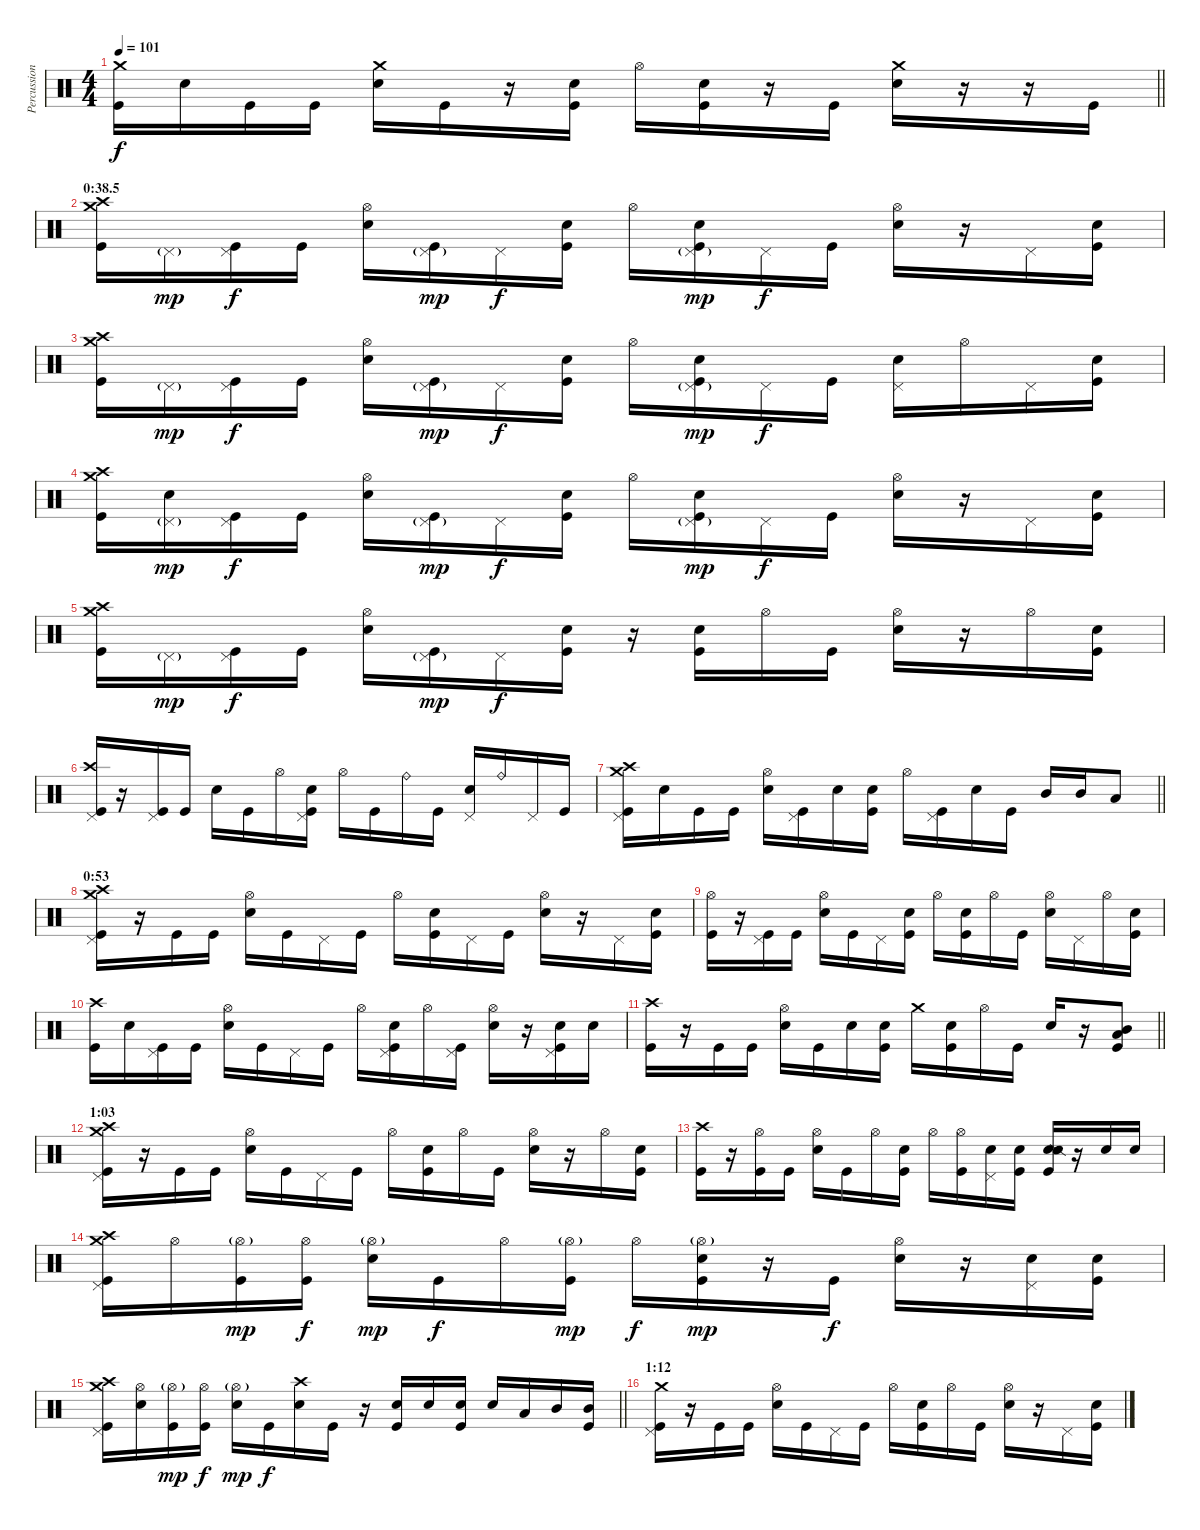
\track ("Percussion" "Percussion") {instrument percussion}
\staff {score}
\articulation defaults
\ts (4 4)
\tempo 101
\clef neutral
\barLineRight lightlight
\ks c
("Crash medium (hit)" "Kick (hit)").16{dy f} "Snare (hit) 2".16 "Kick (hit)".16 "Kick (hit)".16 ("Crash medium (hit)" "Snare (hit) 2").16 "Kick (hit)".16 r.16 ("Snare (hit) 2" "Kick (hit)").16 "Hi-Hat (open)".16 ("Snare (hit) 2" "Kick (hit)").16 r.16 "Kick (hit)".16 ("Crash medium (hit)" "Snare (hit) 2").16 r.16 r.16 "Kick (hit)".16 |
\section ("" "0:38.5")
("Crash high (hit)" "Crash medium (hit)" "Kick (hit)").16 "Pedal Hi-Hat (hit)"{g}.16{dy mp} ("Kick (hit)" "Pedal Hi-Hat (hit)").16{dy f} "Kick (hit)".16 ("Hi-Hat (open)" "Snare (hit) 2").16 ("Kick (hit)" "Pedal Hi-Hat (hit)"{g}).16{dy mp} "Pedal Hi-Hat (hit)".16{dy f} ("Snare (hit) 2" "Kick (hit)").16 "Hi-Hat (open)".16 ("Snare (hit) 2" "Kick (hit)" "Pedal Hi-Hat (hit)"{g}).16{dy mp} "Pedal Hi-Hat (hit)".16{dy f} "Kick (hit)".16 ("Hi-Hat (open)" "Snare (hit) 2").16 r.16 "Pedal Hi-Hat (hit)".16 ("Snare (hit) 2" "Kick (hit)").16 |
("Crash high (hit)" "Crash medium (hit)" "Kick (hit)").16 "Pedal Hi-Hat (hit)"{g}.16{dy mp} ("Kick (hit)" "Pedal Hi-Hat (hit)").16{dy f} "Kick (hit)".16 ("Hi-Hat (open)" "Snare (hit) 2").16 ("Kick (hit)" "Pedal Hi-Hat (hit)"{g}).16{dy mp} "Pedal Hi-Hat (hit)".16{dy f} ("Snare (hit) 2" "Kick (hit)").16 "Hi-Hat (open)".16 ("Snare (hit) 2" "Kick (hit)" "Pedal Hi-Hat (hit)"{g}).16{dy mp} "Pedal Hi-Hat (hit)".16{dy f} "Kick (hit)".16 ("Snare (hit) 2" "Pedal Hi-Hat (hit)").16 "Hi-Hat (open)".16 "Pedal Hi-Hat (hit)".16 ("Snare (hit) 2" "Kick (hit)").16 |
("Crash high (hit)" "Crash medium (hit)" "Kick (hit)").16 ("Snare (hit) 2" "Pedal Hi-Hat (hit)"{g}).16{dy mp} ("Kick (hit)" "Pedal Hi-Hat (hit)").16{dy f} "Kick (hit)".16 ("Hi-Hat (open)" "Snare (hit) 2").16 ("Kick (hit)" "Pedal Hi-Hat (hit)"{g}).16{dy mp} "Pedal Hi-Hat (hit)".16{dy f} ("Snare (hit) 2" "Kick (hit)").16 "Hi-Hat (open)".16 ("Snare (hit) 2" "Kick (hit)" "Pedal Hi-Hat (hit)"{g}).16{dy mp} "Pedal Hi-Hat (hit)".16{dy f} "Kick (hit)".16 ("Hi-Hat (open)" "Snare (hit) 2").16 r.16 "Pedal Hi-Hat (hit)".16 ("Snare (hit) 2" "Kick (hit)").16 |
("Crash high (hit)" "Crash medium (hit)" "Kick (hit)").16 "Pedal Hi-Hat (hit)"{g}.16{dy mp} ("Kick (hit)" "Pedal Hi-Hat (hit)").16{dy f} "Kick (hit)".16 ("Hi-Hat (open)" "Snare (hit) 2").16 ("Kick (hit)" "Pedal Hi-Hat (hit)"{g}).16{dy mp} "Pedal Hi-Hat (hit)".16{dy f} ("Snare (hit) 2" "Kick (hit)").16 r.16 ("Snare (hit) 2" "Kick (hit)").16 "Hi-Hat (open)".16 "Kick (hit)".16 ("Hi-Hat (open)" "Snare (hit) 2").16 r.16 "Hi-Hat (open)".16 ("Snare (hit) 2" "Kick (hit)").16 |
("Crash high (hit)" "Kick (hit)" "Pedal Hi-Hat (hit)").16 r.16 ("Kick (hit)" "Pedal Hi-Hat (hit)").16 "Kick (hit)".16 "Snare (hit) 2".16 "Kick (hit)".16 "Hi-Hat (open)".16 ("Snare (hit) 2" "Kick (hit)" "Pedal Hi-Hat (hit)").16 "Hi-Hat (open)".16 "Kick (hit)".16 "Ride (bell)".16 "Kick (hit)".16 ("Snare (hit) 2" "Pedal Hi-Hat (hit)").16 "Ride (bell)".16 "Pedal Hi-Hat (hit)".16 "Kick (hit)".16 |
\barLineRight lightlight
("Crash high (hit)" "Crash medium (hit)" "Kick (hit)" "Pedal Hi-Hat (hit)").16 "Snare (hit) 2".16 "Kick (hit)".16 "Kick (hit)".16 ("Hi-Hat (open)" "Snare (hit) 2").16 ("Kick (hit)" "Pedal Hi-Hat (hit)").16 "Snare (hit) 2".16 ("Snare (hit) 2" "Kick (hit)").16 "Hi-Hat (open)".16 ("Kick (hit)" "Pedal Hi-Hat (hit)").16 "Snare (hit) 2".16 "Kick (hit)".16 "Mid Tom (hit)".16 "Mid Tom (hit)".16 "Low Tom (hit)".8 |
\section ("" "0:53")
("Crash high (hit)" "Crash medium (hit)" "Kick (hit)" "Pedal Hi-Hat (hit)").16 r.16 "Kick (hit)".16 "Kick (hit)".16 ("Hi-Hat (open)" "Snare (hit) 2").16 "Kick (hit)".16 "Pedal Hi-Hat (hit)".16 "Kick (hit)".16 "Hi-Hat (open)".16 ("Snare (hit) 2" "Kick (hit)").16 "Pedal Hi-Hat (hit)".16 "Kick (hit)".16 ("Hi-Hat (open)" "Snare (hit) 2").16 r.16 "Pedal Hi-Hat (hit)".16 ("Snare (hit) 2" "Kick (hit)").16 |
("Hi-Hat (open)" "Kick (hit)").16 r.16 ("Kick (hit)" "Pedal Hi-Hat (hit)").16 "Kick (hit)".16 ("Hi-Hat (open)" "Snare (hit) 2").16 "Kick (hit)".16 "Pedal Hi-Hat (hit)".16 ("Snare (hit) 2" "Kick (hit)").16 "Hi-Hat (open)".16 ("Snare (hit) 2" "Kick (hit)").16 "Hi-Hat (open)".16 "Kick (hit)".16 ("Hi-Hat (open)" "Snare (hit) 2").16 "Pedal Hi-Hat (hit)".16 "Hi-Hat (open)".16 ("Snare (hit) 2" "Kick (hit)").16 |
("Crash high (hit)" "Kick (hit)").16 "Snare (hit) 2".16 ("Kick (hit)" "Pedal Hi-Hat (hit)").16 "Kick (hit)".16 ("Hi-Hat (open)" "Snare (hit) 2").16 "Kick (hit)".16 "Pedal Hi-Hat (hit)".16 "Kick (hit)".16 "Hi-Hat (open)".16 ("Snare (hit) 2" "Kick (hit)" "Pedal Hi-Hat (hit)").16 "Hi-Hat (open)".16 ("Kick (hit)" "Pedal Hi-Hat (hit)").16 ("Hi-Hat (open)" "Snare (hit) 2").16 r.16 ("Snare (hit) 2" "Kick (hit)" "Pedal Hi-Hat (hit)").16 "Snare (hit) 2".16 |
\barLineRight lightlight
("Crash high (hit)" "Kick (hit)").16 r.16 "Kick (hit)".16 "Kick (hit)".16 ("Hi-Hat (open)" "Snare (hit) 2").16 "Kick (hit)".16 "Snare (hit) 2".16 ("Snare (hit) 2" "Kick (hit)").16 "Crash medium (hit)".16 ("Snare (hit) 2" "Kick (hit)").16 "Hi-Hat (open)".16 "Kick (hit)".16 "Snare (hit) 2".16 r.16 ("Mid Tom (hit)" "Low Tom (hit)" "Kick (hit)").8 |
\section ("" "1:03")
("Crash high (hit)" "Crash medium (hit)" "Kick (hit)" "Pedal Hi-Hat (hit)").16 r.16 "Kick (hit)".16 "Kick (hit)".16 ("Hi-Hat (open)" "Snare (hit) 2").16 "Kick (hit)".16 "Pedal Hi-Hat (hit)".16 "Kick (hit)".16 "Hi-Hat (open)".16 ("Snare (hit) 2" "Kick (hit)").16 "Hi-Hat (open)".16 "Kick (hit)".16 ("Hi-Hat (open)" "Snare (hit) 2").16 r.16 "Hi-Hat (open)".16 ("Snare (hit) 2" "Kick (hit)").16 |
("Crash high (hit)" "Kick (hit)").16 r.16 ("Hi-Hat (open)" "Kick (hit)").16 "Kick (hit)".16 ("Hi-Hat (open)" "Snare (hit) 2").16 "Kick (hit)".16 "Hi-Hat (open)".16 ("Snare (hit) 2" "Kick (hit)").16 "Hi-Hat (open)".16 ("Hi-Hat (open)" "Kick (hit)").16 ("Snare (hit) 2" "Pedal Hi-Hat (hit)").16 ("Snare (hit) 2" "Kick (hit)").16 ("Snare (hit) 2" "Snare (side stick) 2" "Kick (hit)").16 r.16 "Snare (hit) 2".16 "Snare (hit) 2".16 |
("Crash high (hit)" "Crash medium (hit)" "Kick (hit)" "Pedal Hi-Hat (hit)").16 "Hi-Hat (open)".16 ("Hi-Hat (open)"{g} "Kick (hit)").16{dy mp} ("Hi-Hat (open)" "Kick (hit)").16{dy f} ("Hi-Hat (open)"{g} "Snare (hit) 2").16{dy mp} "Kick (hit)".16{dy f} "Hi-Hat (open)".16 ("Hi-Hat (open)"{g} "Kick (hit)").16{dy mp} "Hi-Hat (open)".16{dy f} ("Hi-Hat (open)"{g} "Snare (hit) 2" "Kick (hit)").16{dy mp} r.16 "Kick (hit)".16{dy f} ("Hi-Hat (open)" "Snare (hit) 2").16 r.16 ("Snare (hit) 2" "Pedal Hi-Hat (hit)").16 ("Snare (hit) 2" "Kick (hit)").16 |
\barLineRight lightlight
("Crash high (hit)" "Crash medium (hit)" "Kick (hit)" "Pedal Hi-Hat (hit)").16 ("Hi-Hat (open)" "Snare (hit) 2").16 ("Hi-Hat (open)"{g} "Kick (hit)").16{dy mp} ("Hi-Hat (open)" "Kick (hit)").16{dy f} ("Hi-Hat (open)"{g} "Snare (hit) 2").16{dy mp} "Kick (hit)".16{dy f} ("Crash high (hit)" "Snare (hit) 2").16 "Kick (hit)".16 r.16 ("Snare (hit) 2" "Kick (hit)").16 "Snare (hit) 2".16 ("Snare (hit) 2" "Kick (hit)").16 "Snare (hit) 2".16 "Low Tom (hit)".16 "Mid Tom (hit)".16 ("Mid Tom (hit)" "Kick (hit)").16 |
\section ("" "1:12")
("Crash medium (hit)" "Kick (hit)" "Pedal Hi-Hat (hit)").16 r.16 "Kick (hit)".16 "Kick (hit)".16 ("Hi-Hat (open)" "Snare (hit) 2").16 "Kick (hit)".16 "Pedal Hi-Hat (hit)".16 "Kick (hit)".16 "Hi-Hat (open)".16 ("Snare (hit) 2" "Kick (hit)").16 "Hi-Hat (open)".16 "Kick (hit)".16 ("Hi-Hat (open)" "Snare (hit) 2").16 r.16 "Pedal Hi-Hat (hit)".16 ("Snare (hit) 2" "Kick (hit)").16
